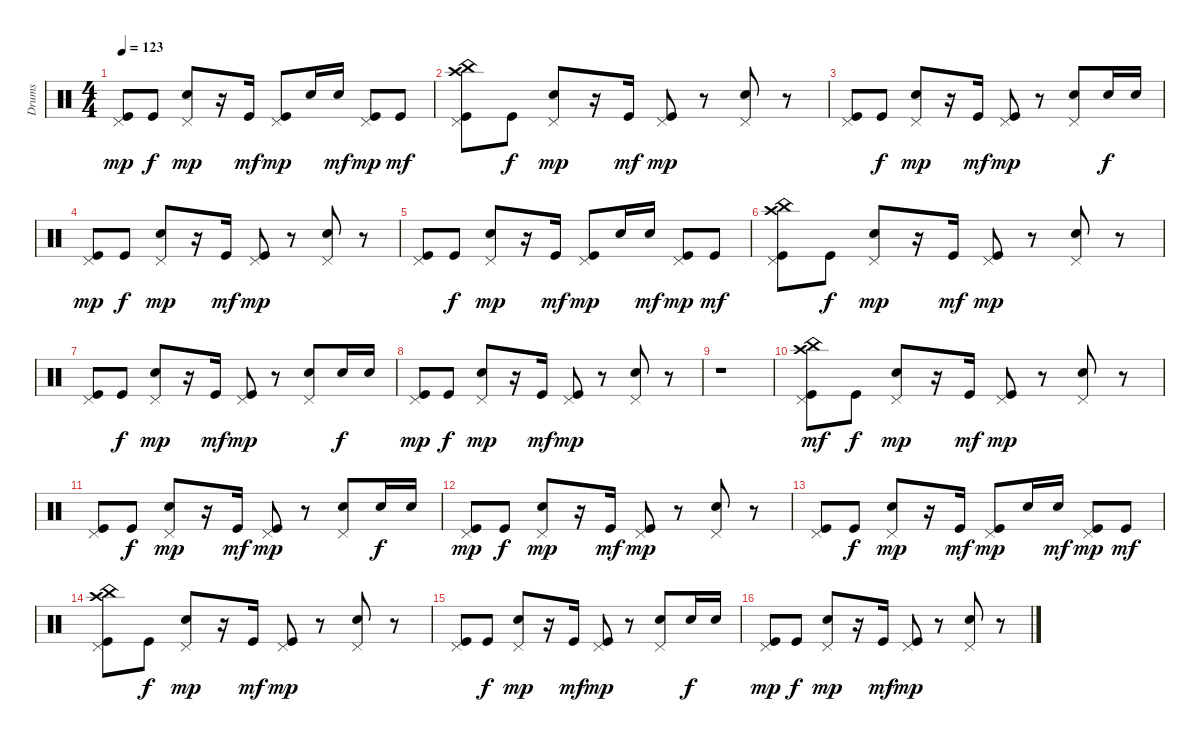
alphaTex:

\track ("Drums" "Drums") {instrument percussion}
\staff {score}
\articulation defaults
\ts (4 4)
\tempo 123
\clef neutral
\ks c
("Pedal Hi-Hat (hit)" "Kick (hit)").8{dy mp} "Kick (hit)".8{dy f} ("Pedal Hi-Hat (hit)" "Electric Snare (hit)").8{dy mp} r.16 "Kick (hit)".16{dy mf} ("Pedal Hi-Hat (hit)" "Kick (hit)").8{dy mp} "Electric Snare (hit)".16 "Electric Snare (hit)".16{dy mf} ("Kick (hit)" "Pedal Hi-Hat (hit)").8{dy mp} "Kick (hit)".8{dy mf} |
("Pedal Hi-Hat (hit)" "Kick (hit)" "Crash high (hit)" "China (hit)").8 "Kick (hit)".8{dy f} ("Pedal Hi-Hat (hit)" "Electric Snare (hit)").8{dy mp} r.16 "Kick (hit)".16{dy mf} ("Pedal Hi-Hat (hit)" "Kick (hit)").8{dy mp} r.8 ("Pedal Hi-Hat (hit)" "Electric Snare (hit)").8 r.8 |
("Pedal Hi-Hat (hit)" "Kick (hit)").8 "Kick (hit)".8{dy f} ("Electric Snare (hit)" "Pedal Hi-Hat (hit)").8{dy mp} r.16 "Kick (hit)".16{dy mf} ("Pedal Hi-Hat (hit)" "Kick (hit)").8{dy mp} r.8 ("Pedal Hi-Hat (hit)" "Electric Snare (hit)").8 "Electric Snare (hit)".16{dy f} "Electric Snare (hit)".16 |
("Pedal Hi-Hat (hit)" "Kick (hit)").8{dy mp} "Kick (hit)".8{dy f} ("Pedal Hi-Hat (hit)" "Electric Snare (hit)").8{dy mp} r.16 "Kick (hit)".16{dy mf} ("Pedal Hi-Hat (hit)" "Kick (hit)").8{dy mp} r.8 ("Pedal Hi-Hat (hit)" "Electric Snare (hit)").8 r.8 |
("Pedal Hi-Hat (hit)" "Kick (hit)").8 "Kick (hit)".8{dy f} ("Pedal Hi-Hat (hit)" "Electric Snare (hit)").8{dy mp} r.16 "Kick (hit)".16{dy mf} ("Pedal Hi-Hat (hit)" "Kick (hit)").8{dy mp} "Electric Snare (hit)".16 "Electric Snare (hit)".16{dy mf} ("Kick (hit)" "Pedal Hi-Hat (hit)").8{dy mp} "Kick (hit)".8{dy mf} |
("Pedal Hi-Hat (hit)" "Kick (hit)" "Crash high (hit)" "China (hit)").8 "Kick (hit)".8{dy f} ("Pedal Hi-Hat (hit)" "Electric Snare (hit)").8{dy mp} r.16 "Kick (hit)".16{dy mf} ("Pedal Hi-Hat (hit)" "Kick (hit)").8{dy mp} r.8 ("Pedal Hi-Hat (hit)" "Electric Snare (hit)").8 r.8 |
("Pedal Hi-Hat (hit)" "Kick (hit)").8 "Kick (hit)".8{dy f} ("Electric Snare (hit)" "Pedal Hi-Hat (hit)").8{dy mp} r.16 "Kick (hit)".16{dy mf} ("Pedal Hi-Hat (hit)" "Kick (hit)").8{dy mp} r.8 ("Pedal Hi-Hat (hit)" "Electric Snare (hit)").8 "Electric Snare (hit)".16{dy f} "Electric Snare (hit)".16 |
("Pedal Hi-Hat (hit)" "Kick (hit)").8{dy mp} "Kick (hit)".8{dy f} ("Pedal Hi-Hat (hit)" "Electric Snare (hit)").8{dy mp} r.16 "Kick (hit)".16{dy mf} ("Pedal Hi-Hat (hit)" "Kick (hit)").8{dy mp} r.8 ("Pedal Hi-Hat (hit)" "Electric Snare (hit)").8 r.8 |
r.1 |
("Pedal Hi-Hat (hit)" "Kick (hit)" "Crash high (hit)" "China (hit)").8{dy mf} "Kick (hit)".8{dy f} ("Pedal Hi-Hat (hit)" "Electric Snare (hit)").8{dy mp} r.16 "Kick (hit)".16{dy mf} ("Pedal Hi-Hat (hit)" "Kick (hit)").8{dy mp} r.8 ("Pedal Hi-Hat (hit)" "Electric Snare (hit)").8 r.8 |
("Pedal Hi-Hat (hit)" "Kick (hit)").8 "Kick (hit)".8{dy f} ("Electric Snare (hit)" "Pedal Hi-Hat (hit)").8{dy mp} r.16 "Kick (hit)".16{dy mf} ("Pedal Hi-Hat (hit)" "Kick (hit)").8{dy mp} r.8 ("Pedal Hi-Hat (hit)" "Electric Snare (hit)").8 "Electric Snare (hit)".16{dy f} "Electric Snare (hit)".16 |
("Pedal Hi-Hat (hit)" "Kick (hit)").8{dy mp} "Kick (hit)".8{dy f} ("Pedal Hi-Hat (hit)" "Electric Snare (hit)").8{dy mp} r.16 "Kick (hit)".16{dy mf} ("Pedal Hi-Hat (hit)" "Kick (hit)").8{dy mp} r.8 ("Pedal Hi-Hat (hit)" "Electric Snare (hit)").8 r.8 |
("Pedal Hi-Hat (hit)" "Kick (hit)").8 "Kick (hit)".8{dy f} ("Pedal Hi-Hat (hit)" "Electric Snare (hit)").8{dy mp} r.16 "Kick (hit)".16{dy mf} ("Pedal Hi-Hat (hit)" "Kick (hit)").8{dy mp} "Electric Snare (hit)".16 "Electric Snare (hit)".16{dy mf} ("Kick (hit)" "Pedal Hi-Hat (hit)").8{dy mp} "Kick (hit)".8{dy mf} |
("Pedal Hi-Hat (hit)" "Kick (hit)" "Crash high (hit)" "China (hit)").8 "Kick (hit)".8{dy f} ("Pedal Hi-Hat (hit)" "Electric Snare (hit)").8{dy mp} r.16 "Kick (hit)".16{dy mf} ("Pedal Hi-Hat (hit)" "Kick (hit)").8{dy mp} r.8 ("Pedal Hi-Hat (hit)" "Electric Snare (hit)").8 r.8 |
("Pedal Hi-Hat (hit)" "Kick (hit)").8 "Kick (hit)".8{dy f} ("Electric Snare (hit)" "Pedal Hi-Hat (hit)").8{dy mp} r.16 "Kick (hit)".16{dy mf} ("Pedal Hi-Hat (hit)" "Kick (hit)").8{dy mp} r.8 ("Pedal Hi-Hat (hit)" "Electric Snare (hit)").8 "Electric Snare (hit)".16{dy f} "Electric Snare (hit)".16 |
("Pedal Hi-Hat (hit)" "Kick (hit)").8{dy mp} "Kick (hit)".8{dy f} ("Pedal Hi-Hat (hit)" "Electric Snare (hit)").8{dy mp} r.16 "Kick (hit)".16{dy mf} ("Pedal Hi-Hat (hit)" "Kick (hit)").8{dy mp} r.8 ("Pedal Hi-Hat (hit)" "Electric Snare (hit)").8 r.8
